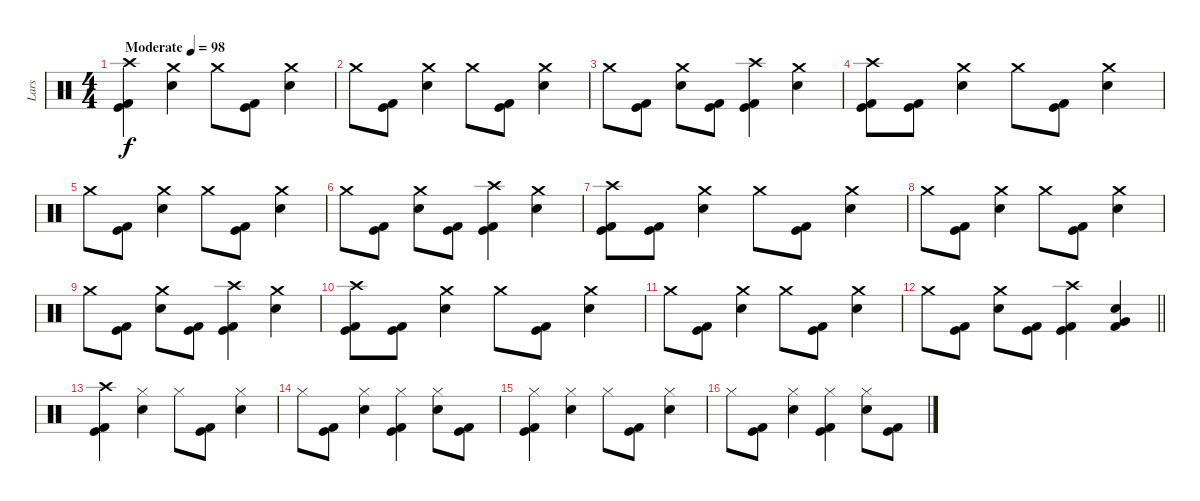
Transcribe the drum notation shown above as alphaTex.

\track ("Lars" "Lars") {instrument percussion}
\staff {score}
\articulation defaults
\ts (4 4)
\tempo (98 "Moderate")
\clef neutral
\ks c
("Crash high (hit)" "Kick (hit)" "Kick (hit) 2").4{dy f} ("Crash medium (hit)" "Electric Snare (hit)").4 "Crash medium (hit)".8 ("Kick (hit)" "Kick (hit) 2").8 ("Crash medium (hit)" "Electric Snare (hit)").4 |
"Crash medium (hit)".8 ("Kick (hit)" "Kick (hit) 2").8 ("Crash medium (hit)" "Electric Snare (hit)").4 "Crash medium (hit)".8 ("Kick (hit)" "Kick (hit) 2").8 ("Crash medium (hit)" "Electric Snare (hit)").4 |
"Crash medium (hit)".8 ("Kick (hit)" "Kick (hit) 2").8 ("Crash medium (hit)" "Electric Snare (hit)").8 ("Kick (hit)" "Kick (hit) 2").8 ("Crash high (hit)" "Kick (hit)" "Kick (hit) 2").4 ("Crash medium (hit)" "Electric Snare (hit)").4 |
("Crash high (hit)" "Kick (hit)" "Kick (hit) 2").8 ("Kick (hit)" "Kick (hit) 2").8 ("Crash medium (hit)" "Electric Snare (hit)").4 "Crash medium (hit)".8 ("Kick (hit)" "Kick (hit) 2").8 ("Crash medium (hit)" "Electric Snare (hit)").4 |
"Crash medium (hit)".8 ("Kick (hit)" "Kick (hit) 2").8 ("Crash medium (hit)" "Electric Snare (hit)").4 "Crash medium (hit)".8 ("Kick (hit)" "Kick (hit) 2").8 ("Crash medium (hit)" "Electric Snare (hit)").4 |
"Crash medium (hit)".8 ("Kick (hit)" "Kick (hit) 2").8 ("Crash medium (hit)" "Electric Snare (hit)").8 ("Kick (hit)" "Kick (hit) 2").8 ("Crash high (hit)" "Kick (hit)" "Kick (hit) 2").4 ("Crash medium (hit)" "Electric Snare (hit)").4 |
("Crash high (hit)" "Kick (hit)" "Kick (hit) 2").8 ("Kick (hit)" "Kick (hit) 2").8 ("Crash medium (hit)" "Electric Snare (hit)").4 "Crash medium (hit)".8 ("Kick (hit)" "Kick (hit) 2").8 ("Crash medium (hit)" "Electric Snare (hit)").4 |
"Crash medium (hit)".8 ("Kick (hit)" "Kick (hit) 2").8 ("Crash medium (hit)" "Electric Snare (hit)").4 "Crash medium (hit)".8 ("Kick (hit)" "Kick (hit) 2").8 ("Crash medium (hit)" "Electric Snare (hit)").4 |
"Crash medium (hit)".8 ("Kick (hit)" "Kick (hit) 2").8 ("Crash medium (hit)" "Electric Snare (hit)").8 ("Kick (hit)" "Kick (hit) 2").8 ("Crash high (hit)" "Kick (hit)" "Kick (hit) 2").4 ("Crash medium (hit)" "Electric Snare (hit)").4 |
("Crash high (hit)" "Kick (hit)" "Kick (hit) 2").8 ("Kick (hit)" "Kick (hit) 2").8 ("Crash medium (hit)" "Electric Snare (hit)").4 "Crash medium (hit)".8 ("Kick (hit)" "Kick (hit) 2").8 ("Crash medium (hit)" "Electric Snare (hit)").4 |
"Crash medium (hit)".8 ("Kick (hit)" "Kick (hit) 2").8 ("Crash medium (hit)" "Electric Snare (hit)").4 "Crash medium (hit)".8 ("Kick (hit)" "Kick (hit) 2").8 ("Crash medium (hit)" "Electric Snare (hit)").4 |
\barLineRight lightlight "Crash medium (hit)".8
("Kick (hit)" "Kick (hit) 2").8 ("Crash medium (hit)" "Electric Snare (hit)").8 ("Kick (hit)" "Kick (hit) 2").8 ("Crash high (hit)" "Kick (hit)" "Kick (hit) 2").4 ("Electric Snare (hit)" "Very Low Tom (hit)" "Kick (hit) 2").4 |
\section ("" "")
("Crash high (hit)" "Kick (hit)" "Kick (hit) 2").4 ("Hi-Hat (closed)" "Electric Snare (hit)").4 "Hi-Hat (closed)".8 ("Kick (hit)" "Kick (hit) 2").8 ("Hi-Hat (closed)" "Electric Snare (hit)").4 |
"Hi-Hat (closed)".8 ("Kick (hit)" "Kick (hit) 2").8 ("Hi-Hat (closed)" "Electric Snare (hit)").4 ("Hi-Hat (closed)" "Kick (hit)" "Kick (hit) 2").4 ("Hi-Hat (closed)" "Electric Snare (hit)").8 ("Kick (hit)" "Kick (hit) 2").8 |
("Hi-Hat (closed)" "Kick (hit)" "Kick (hit) 2").4 ("Hi-Hat (closed)" "Electric Snare (hit)").4 "Hi-Hat (closed)".8 ("Kick (hit)" "Kick (hit) 2").8 ("Hi-Hat (closed)" "Electric Snare (hit)").4 |
"Hi-Hat (closed)".8 ("Kick (hit)" "Kick (hit) 2").8 ("Hi-Hat (closed)" "Electric Snare (hit)").4 ("Hi-Hat (closed)" "Kick (hit)" "Kick (hit) 2").4 ("Hi-Hat (closed)" "Electric Snare (hit)").8 ("Kick (hit)" "Kick (hit) 2").8
